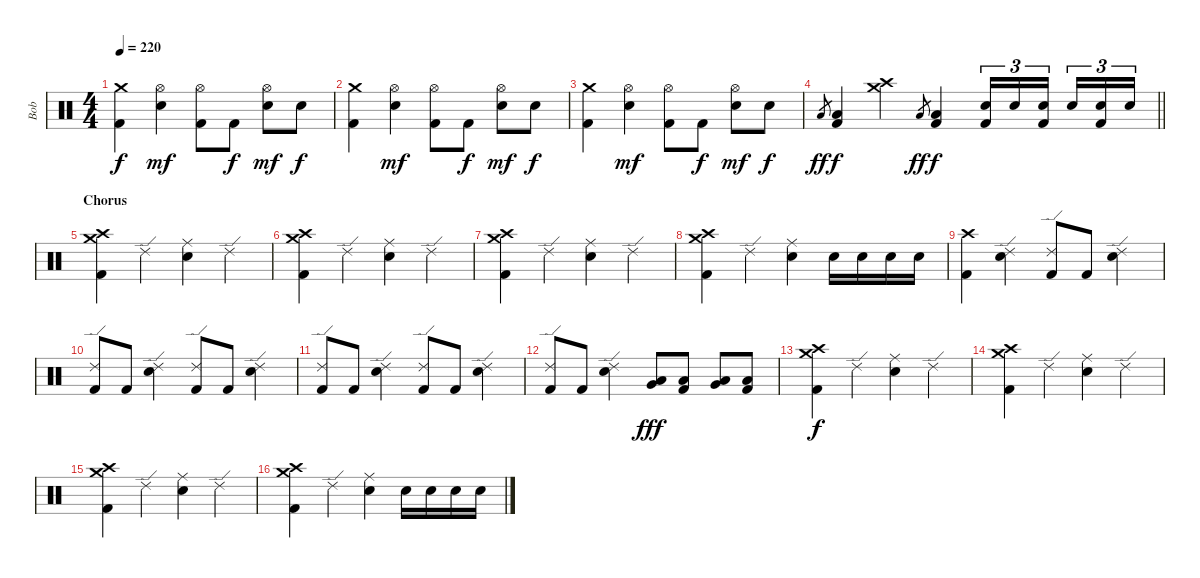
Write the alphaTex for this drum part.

\track ("Bob" "Bob") {instrument percussion}
\staff {score}
\articulation defaults
\ts (4 4)
\tempo 220
\clef neutral
\ks c
("Crash medium (hit)" "Kick (hit) 2").4{dy f} ("Hi-Hat (open)" "Electric Snare (hit)").4{dy mf} ("Hi-Hat (open)" "Kick (hit) 2").8 "Kick (hit) 2".8{dy f} ("Hi-Hat (open)" "Electric Snare (hit)").8{dy mf} "Electric Snare (hit)".8{dy f} |
("Crash medium (hit)" "Kick (hit) 2").4 ("Hi-Hat (open)" "Electric Snare (hit)").4{dy mf} ("Hi-Hat (open)" "Kick (hit) 2").8 "Kick (hit) 2".8{dy f} ("Hi-Hat (open)" "Electric Snare (hit)").8{dy mf} "Electric Snare (hit)".8{dy f} |
("Crash medium (hit)" "Kick (hit) 2").4 ("Hi-Hat (open)" "Electric Snare (hit)").4{dy mf} ("Hi-Hat (open)" "Kick (hit) 2").8 "Kick (hit) 2".8{dy f} ("Hi-Hat (open)" "Electric Snare (hit)").8{dy mf} "Electric Snare (hit)".8{dy f} |
\barLineRight lightlight "Low Floor Tom (hit)".8{gr dy ff}
("Low Floor Tom (hit)" "Kick (hit) 2").4{dy f} ("Crash medium (hit)" "Crash high (hit)").4 "Low Floor Tom (hit)".8{gr dy ff} ("Low Floor Tom (hit)" "Kick (hit) 2").4{dy f} ("Snare (hit) 2" "Kick (hit) 2").16{tu (3 2)} "Snare (hit) 2".16{tu (3 2)} ("Snare (hit) 2" "Kick (hit) 2").16{tu (3 2)} "Snare (hit) 2".16{tu (3 2)} ("Snare (hit) 2" "Kick (hit) 2").16{tu (3 2)} "Snare (hit) 2".16{tu (3 2)} |
\section ("" "Chorus")
("Crash high (hit)" "Crash medium (hit)" "Kick (hit) 2").4 "Ride (edge) 2".4 ("Ride (middle)" "Electric Snare (hit)").4 "Ride (edge) 2".4 |
("Crash high (hit)" "Crash medium (hit)" "Kick (hit) 2").4 "Ride (edge) 2".4 ("Ride (middle)" "Electric Snare (hit)").4 "Ride (edge) 2".4 |
("Crash high (hit)" "Crash medium (hit)" "Kick (hit) 2").4 "Ride (edge) 2".4 ("Ride (middle)" "Electric Snare (hit)").4 "Ride (edge) 2".4 |
("Crash high (hit)" "Crash medium (hit)" "Kick (hit) 2").4 "Ride (edge) 2".4 ("Ride (middle)" "Electric Snare (hit)").4 "Electric Snare (hit)".16 "Electric Snare (hit)".16 "Electric Snare (hit)".16 "Electric Snare (hit)".16 |
("Crash high (hit)" "Kick (hit) 2").4 ("Ride (edge) 2" "Electric Snare (hit)").4 ("Ride (edge) 2" "Kick (hit) 2").8 "Kick (hit) 2".8 ("Ride (edge) 2" "Electric Snare (hit)").4 |
("Ride (edge) 2" "Kick (hit) 2").8 "Kick (hit) 2".8 ("Ride (edge) 2" "Electric Snare (hit)").4 ("Ride (edge) 2" "Kick (hit) 2").8 "Kick (hit) 2".8 ("Ride (edge) 2" "Electric Snare (hit)").4 |
("Ride (edge) 2" "Kick (hit) 2").8 "Kick (hit) 2".8 ("Ride (edge) 2" "Electric Snare (hit)").4 ("Ride (edge) 2" "Kick (hit) 2").8 "Kick (hit) 2".8 ("Ride (edge) 2" "Electric Snare (hit)").4 |
("Ride (edge) 2" "Kick (hit) 2").8 "Kick (hit) 2".8 ("Ride (edge) 2" "Electric Snare (hit)").4 ("Low Tom (hit)" "Very Low Tom (hit)").8{dy fff} ("Low Floor Tom (hit)" "Kick (hit) 2").8 ("Low Tom (hit)" "Very Low Tom (hit)").8 ("Low Floor Tom (hit)" "Kick (hit) 2").8 |
("Crash high (hit)" "Crash medium (hit)" "Kick (hit) 2").4{dy f} "Ride (edge) 2".4 ("Ride (middle)" "Electric Snare (hit)").4 "Ride (edge) 2".4 |
("Crash high (hit)" "Crash medium (hit)" "Kick (hit) 2").4 "Ride (edge) 2".4 ("Ride (middle)" "Electric Snare (hit)").4 "Ride (edge) 2".4 |
("Crash high (hit)" "Crash medium (hit)" "Kick (hit) 2").4 "Ride (edge) 2".4 ("Ride (middle)" "Electric Snare (hit)").4 "Ride (edge) 2".4 |
("Crash high (hit)" "Crash medium (hit)" "Kick (hit) 2").4 "Ride (edge) 2".4 ("Ride (middle)" "Electric Snare (hit)").4 "Electric Snare (hit)".16 "Electric Snare (hit)".16 "Electric Snare (hit)".16 "Electric Snare (hit)".16
